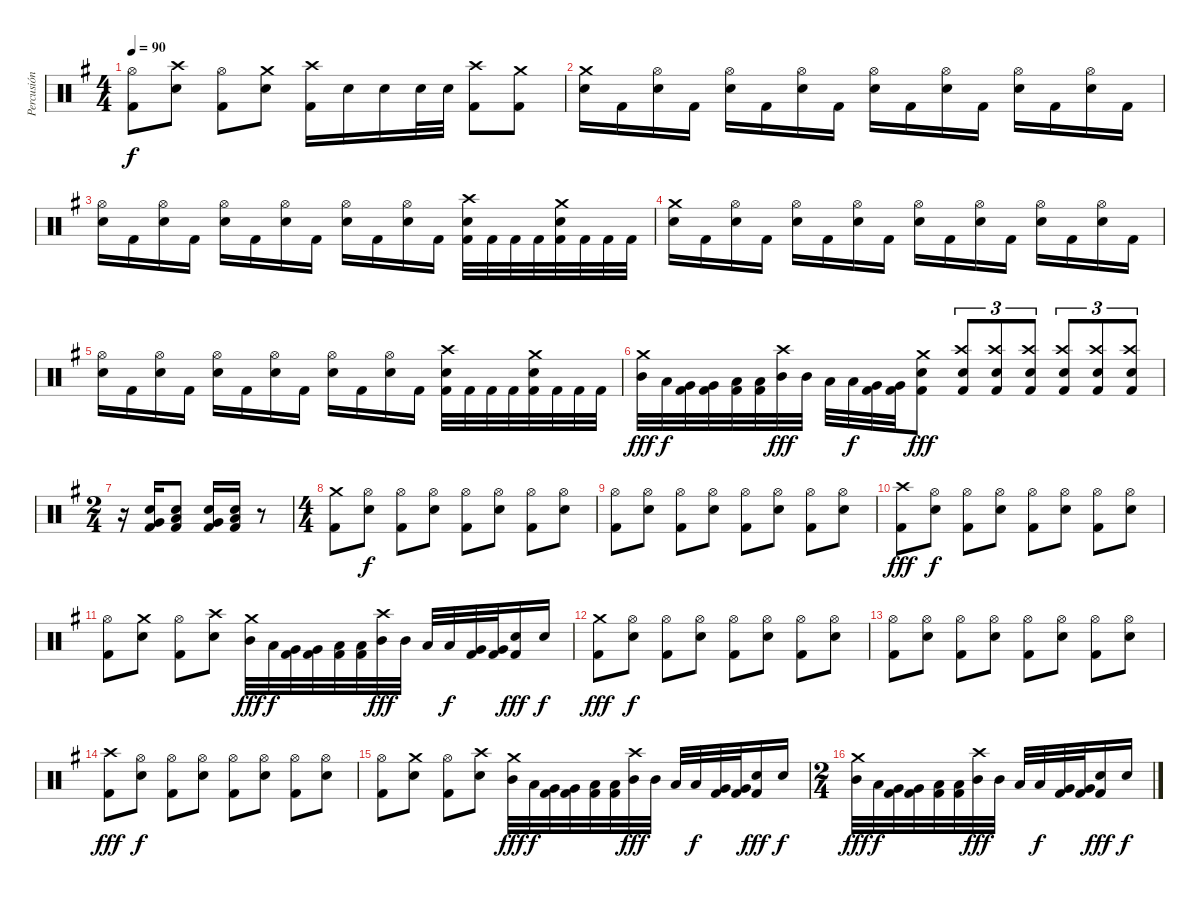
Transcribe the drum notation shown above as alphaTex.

\track ("Percusión" "Percusión") {instrument percussion}
\staff {score}
\articulation defaults
\ts (4 4)
\tempo 90
\clef neutral
\ks g
("Hi-Hat (open)" "Kick (hit) 2").8{dy f} ("Crash high (hit)" "Electric Snare (hit)").8 ("Hi-Hat (open)" "Kick (hit) 2").8 ("Crash medium (hit)" "Electric Snare (hit)").8 ("Crash high (hit)" "Kick (hit) 2").16 "Electric Snare (hit)".16 "Electric Snare (hit)".16 "Electric Snare (hit)".32 "Electric Snare (hit)".32 ("Crash high (hit)" "Kick (hit) 2").8 ("Crash medium (hit)" "Kick (hit) 2").8 |
("Crash medium (hit)" "Electric Snare (hit)").16 "Kick (hit) 2".16 ("Hi-Hat (open)" "Electric Snare (hit)").16 "Kick (hit) 2".16 ("Hi-Hat (open)" "Electric Snare (hit)").16 "Kick (hit) 2".16 ("Hi-Hat (open)" "Electric Snare (hit)").16 "Kick (hit) 2".16 ("Hi-Hat (open)" "Electric Snare (hit)").16 "Kick (hit) 2".16 ("Hi-Hat (open)" "Electric Snare (hit)").16 "Kick (hit) 2".16 ("Hi-Hat (open)" "Electric Snare (hit)").16 "Kick (hit) 2".16 ("Hi-Hat (open)" "Electric Snare (hit)").16 "Kick (hit) 2".16 |
("Hi-Hat (open)" "Electric Snare (hit)").16 "Kick (hit) 2".16 ("Hi-Hat (open)" "Electric Snare (hit)").16 "Kick (hit) 2".16 ("Hi-Hat (open)" "Electric Snare (hit)").16 "Kick (hit) 2".16 ("Hi-Hat (open)" "Electric Snare (hit)").16 "Kick (hit) 2".16 ("Hi-Hat (open)" "Electric Snare (hit)").16 "Kick (hit) 2".16 ("Hi-Hat (open)" "Electric Snare (hit)").16 "Kick (hit) 2".16 ("Crash high (hit)" "Electric Snare (hit)" "Kick (hit) 2").32 "Kick (hit) 2".32 "Kick (hit) 2".32 "Kick (hit) 2".32 ("Crash medium (hit)" "Electric Snare (hit)" "Kick (hit) 2").32 "Kick (hit) 2".32 "Kick (hit) 2".32 "Kick (hit) 2".32 |
("Crash medium (hit)" "Electric Snare (hit)").16 "Kick (hit) 2".16 ("Hi-Hat (open)" "Electric Snare (hit)").16 "Kick (hit) 2".16 ("Hi-Hat (open)" "Electric Snare (hit)").16 "Kick (hit) 2".16 ("Hi-Hat (open)" "Electric Snare (hit)").16 "Kick (hit) 2".16 ("Hi-Hat (open)" "Electric Snare (hit)").16 "Kick (hit) 2".16 ("Hi-Hat (open)" "Electric Snare (hit)").16 "Kick (hit) 2".16 ("Hi-Hat (open)" "Electric Snare (hit)").16 "Kick (hit) 2".16 ("Hi-Hat (open)" "Electric Snare (hit)").16 "Kick (hit) 2".16 |
("Hi-Hat (open)" "Electric Snare (hit)").16 "Kick (hit) 2".16 ("Hi-Hat (open)" "Electric Snare (hit)").16 "Kick (hit) 2".16 ("Hi-Hat (open)" "Electric Snare (hit)").16 "Kick (hit) 2".16 ("Hi-Hat (open)" "Electric Snare (hit)").16 "Kick (hit) 2".16 ("Hi-Hat (open)" "Electric Snare (hit)").16 "Kick (hit) 2".16 ("Hi-Hat (open)" "Electric Snare (hit)").16 "Kick (hit) 2".16 ("Crash high (hit)" "Electric Snare (hit)" "Kick (hit) 2").32 "Kick (hit) 2".32 "Kick (hit) 2".32 "Kick (hit) 2".32 ("Crash medium (hit)" "Electric Snare (hit)" "Kick (hit) 2").32 "Kick (hit) 2".32 "Kick (hit) 2".32 "Kick (hit) 2".32 |
("Crash medium (hit)" "Mid Tom (hit)").32{dy fff} "Low Tom (hit)".32{dy f} ("Very Low Tom (hit)" "Kick (hit) 2").32 ("Very Low Tom (hit)" "Kick (hit) 2").32 ("Low Floor Tom (hit)" "Kick (hit) 2").32 ("Low Floor Tom (hit)" "Kick (hit) 2").32 ("Crash high (hit)" "Mid Tom (hit)").32{dy fff} "Mid Tom (hit)".32 "Low Tom (hit)".32 "Low Tom (hit)".32{dy f} ("Very Low Tom (hit)" "Kick (hit) 2").32 ("Very Low Tom (hit)" "Kick (hit) 2").32 ("Crash medium (hit)" "Electric Snare (hit)" "Kick (hit) 2").8{dy fff} ("Crash high (hit)" "Electric Snare (hit)" "Kick (hit) 2").8{tu (3 2)} ("Crash high (hit)" "Electric Snare (hit)" "Kick (hit) 2").8{tu (3 2)} ("Crash high (hit)" "Electric Snare (hit)" "Kick (hit) 2").8{tu (3 2)} ("Crash high (hit)" "Electric Snare (hit)" "Kick (hit) 2").8{tu (3 2)} ("Crash high (hit)" "Electric Snare (hit)" "Kick (hit) 2").8{tu (3 2)} ("Crash high (hit)" "Electric Snare (hit)" "Kick (hit) 2").8{tu (3 2)} |
\ts (2 4)
r.16 ("Electric Snare (hit)" "Very Low Tom (hit)" "Kick (hit) 2").16 ("Electric Snare (hit)" "Low Floor Tom (hit)" "Kick (hit) 2").8 ("Electric Snare (hit)" "Very Low Tom (hit)" "Kick (hit) 2").16 ("Electric Snare (hit)" "Low Floor Tom (hit)" "Kick (hit) 2").16 r.8 |
\ts (4 4)
("Crash medium (hit)" "Kick (hit) 2").8 ("Hi-Hat (open)" "Electric Snare (hit)").8{dy f} ("Hi-Hat (open)" "Kick (hit) 2").8 ("Hi-Hat (open)" "Electric Snare (hit)").8 ("Hi-Hat (open)" "Kick (hit) 2").8 ("Hi-Hat (open)" "Electric Snare (hit)").8 ("Hi-Hat (open)" "Kick (hit) 2").8 ("Hi-Hat (open)" "Electric Snare (hit)").8 |
("Hi-Hat (open)" "Kick (hit) 2").8 ("Hi-Hat (open)" "Electric Snare (hit)").8 ("Hi-Hat (open)" "Kick (hit) 2").8 ("Hi-Hat (open)" "Electric Snare (hit)").8 ("Hi-Hat (open)" "Kick (hit) 2").8 ("Hi-Hat (open)" "Electric Snare (hit)").8 ("Hi-Hat (open)" "Kick (hit) 2").8 ("Hi-Hat (open)" "Electric Snare (hit)").8 |
("Crash high (hit)" "Kick (hit) 2").8{dy fff} ("Hi-Hat (open)" "Electric Snare (hit)").8{dy f} ("Hi-Hat (open)" "Kick (hit) 2").8 ("Hi-Hat (open)" "Electric Snare (hit)").8 ("Hi-Hat (open)" "Kick (hit) 2").8 ("Hi-Hat (open)" "Electric Snare (hit)").8 ("Hi-Hat (open)" "Kick (hit) 2").8 ("Hi-Hat (open)" "Electric Snare (hit)").8 |
("Hi-Hat (open)" "Kick (hit) 2").8 ("Crash medium (hit)" "Electric Snare (hit)").8 ("Hi-Hat (open)" "Kick (hit) 2").8 ("Crash high (hit)" "Electric Snare (hit)").8 ("Crash medium (hit)" "Mid Tom (hit)").32{dy fff} "Low Tom (hit)".32{dy f} ("Very Low Tom (hit)" "Kick (hit) 2").32 ("Very Low Tom (hit)" "Kick (hit) 2").32 ("Low Floor Tom (hit)" "Kick (hit) 2").32 ("Low Floor Tom (hit)" "Kick (hit) 2").32 ("Crash high (hit)" "Mid Tom (hit)").32{dy fff} "Mid Tom (hit)".32 "Low Tom (hit)".32 "Low Tom (hit)".32{dy f} ("Very Low Tom (hit)" "Kick (hit) 2").32 ("Very Low Tom (hit)" "Kick (hit) 2").32 ("Electric Snare (hit)" "Kick (hit) 2").16{dy fff} "Electric Snare (hit)".16{dy f} |
("Crash medium (hit)" "Kick (hit) 2").8{dy fff} ("Hi-Hat (open)" "Electric Snare (hit)").8{dy f} ("Hi-Hat (open)" "Kick (hit) 2").8 ("Hi-Hat (open)" "Electric Snare (hit)").8 ("Hi-Hat (open)" "Kick (hit) 2").8 ("Hi-Hat (open)" "Electric Snare (hit)").8 ("Hi-Hat (open)" "Kick (hit) 2").8 ("Hi-Hat (open)" "Electric Snare (hit)").8 |
("Hi-Hat (open)" "Kick (hit) 2").8 ("Hi-Hat (open)" "Electric Snare (hit)").8 ("Hi-Hat (open)" "Kick (hit) 2").8 ("Hi-Hat (open)" "Electric Snare (hit)").8 ("Hi-Hat (open)" "Kick (hit) 2").8 ("Hi-Hat (open)" "Electric Snare (hit)").8 ("Hi-Hat (open)" "Kick (hit) 2").8 ("Hi-Hat (open)" "Electric Snare (hit)").8 |
("Crash high (hit)" "Kick (hit) 2").8{dy fff} ("Hi-Hat (open)" "Electric Snare (hit)").8{dy f} ("Hi-Hat (open)" "Kick (hit) 2").8 ("Hi-Hat (open)" "Electric Snare (hit)").8 ("Hi-Hat (open)" "Kick (hit) 2").8 ("Hi-Hat (open)" "Electric Snare (hit)").8 ("Hi-Hat (open)" "Kick (hit) 2").8 ("Hi-Hat (open)" "Electric Snare (hit)").8 |
("Hi-Hat (open)" "Kick (hit) 2").8 ("Crash medium (hit)" "Electric Snare (hit)").8 ("Hi-Hat (open)" "Kick (hit) 2").8 ("Crash high (hit)" "Electric Snare (hit)").8 ("Crash medium (hit)" "Mid Tom (hit)").32{dy fff} "Low Tom (hit)".32{dy f} ("Very Low Tom (hit)" "Kick (hit) 2").32 ("Very Low Tom (hit)" "Kick (hit) 2").32 ("Low Floor Tom (hit)" "Kick (hit) 2").32 ("Low Floor Tom (hit)" "Kick (hit) 2").32 ("Crash high (hit)" "Mid Tom (hit)").32{dy fff} "Mid Tom (hit)".32 "Low Tom (hit)".32 "Low Tom (hit)".32{dy f} ("Very Low Tom (hit)" "Kick (hit) 2").32 ("Very Low Tom (hit)" "Kick (hit) 2").32 ("Electric Snare (hit)" "Kick (hit) 2").16{dy fff} "Electric Snare (hit)".16{dy f} |
\ts (2 4)
("Crash medium (hit)" "Mid Tom (hit)").32{dy fff} "Low Tom (hit)".32{dy f} ("Very Low Tom (hit)" "Kick (hit) 2").32 ("Very Low Tom (hit)" "Kick (hit) 2").32 ("Low Floor Tom (hit)" "Kick (hit) 2").32 ("Low Floor Tom (hit)" "Kick (hit) 2").32 ("Crash high (hit)" "Mid Tom (hit)").32{dy fff} "Mid Tom (hit)".32 "Low Tom (hit)".32 "Low Tom (hit)".32{dy f} ("Very Low Tom (hit)" "Kick (hit) 2").32 ("Very Low Tom (hit)" "Kick (hit) 2").32 ("Electric Snare (hit)" "Kick (hit) 2").16{dy fff} "Electric Snare (hit)".16{dy f}
